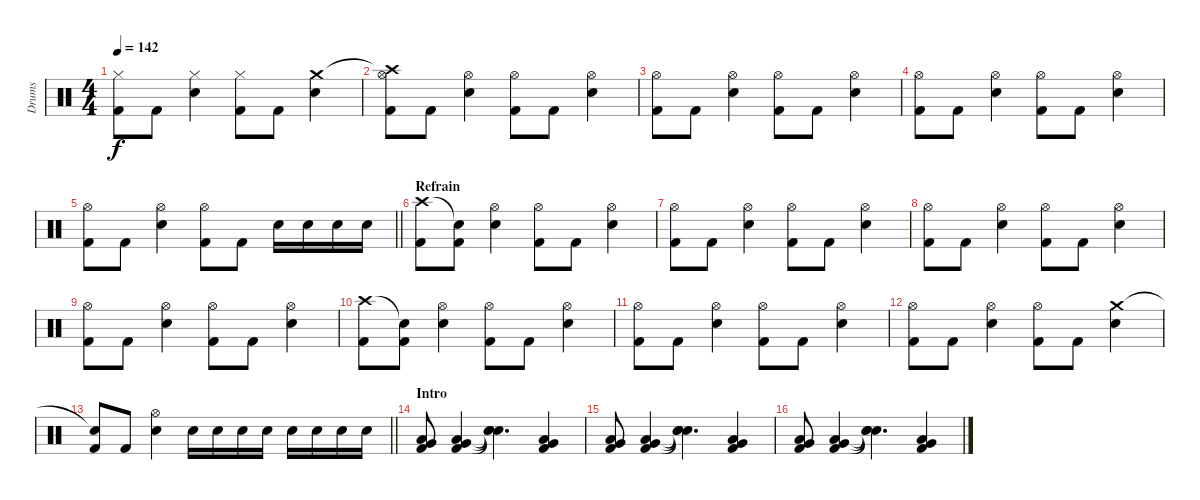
\track ("Drums" "Drums") {instrument percussion}
\staff {score}
\articulation defaults
\ts (4 4)
\tempo 142
\clef neutral
\ks c
("Hi-Hat (closed)" "Kick (hit) 2").8{dy f} "Kick (hit) 2".8 ("Hi-Hat (closed)" "Snare (hit) 2").4 ("Hi-Hat (closed)" "Kick (hit) 2").8 "Kick (hit) 2".8 ("Crash medium (hit)" "Snare (hit) 2").4 |
("Crash high (hit)"{t} "Hi-Hat (open)" "Kick (hit) 2").8 "Kick (hit) 2".8 ("Hi-Hat (open)" "Snare (hit) 2").4 ("Hi-Hat (open)" "Kick (hit) 2").8 "Kick (hit) 2".8 ("Hi-Hat (open)" "Snare (hit) 2").4 |
("Hi-Hat (open)" "Kick (hit) 2").8 "Kick (hit) 2".8 ("Hi-Hat (open)" "Snare (hit) 2").4 ("Hi-Hat (open)" "Kick (hit) 2").8 "Kick (hit) 2".8 ("Hi-Hat (open)" "Snare (hit) 2").4 |
("Hi-Hat (open)" "Kick (hit) 2").8 "Kick (hit) 2".8 ("Hi-Hat (open)" "Snare (hit) 2").4 ("Hi-Hat (open)" "Kick (hit) 2").8 "Kick (hit) 2".8 ("Hi-Hat (open)" "Snare (hit) 2").4 |
\barLineRight lightlight
("Hi-Hat (open)" "Kick (hit) 2").8 "Kick (hit) 2".8 ("Hi-Hat (open)" "Snare (hit) 2").4 ("Hi-Hat (open)" "Kick (hit) 2").8 "Kick (hit) 2".8 "Snare (hit) 2".16 "Snare (hit) 2".16 "Snare (hit) 2".16 "Snare (hit) 2".16 |
\section ("" "Refrain")
("Crash high (hit)" "Kick (hit) 2").8 ("Snare (hit)"{t} "Kick (hit) 2").8 ("Hi-Hat (open)" "Snare (hit) 2").4 ("Hi-Hat (open)" "Kick (hit) 2").8 "Kick (hit) 2".8 ("Hi-Hat (open)" "Snare (hit) 2").4 |
("Hi-Hat (open)" "Kick (hit) 2").8 "Kick (hit) 2".8 ("Hi-Hat (open)" "Snare (hit) 2").4 ("Hi-Hat (open)" "Kick (hit) 2").8 "Kick (hit) 2".8 ("Hi-Hat (open)" "Snare (hit) 2").4 |
("Hi-Hat (open)" "Kick (hit) 2").8 "Kick (hit) 2".8 ("Hi-Hat (open)" "Snare (hit) 2").4 ("Hi-Hat (open)" "Kick (hit) 2").8 "Kick (hit) 2".8 ("Hi-Hat (open)" "Snare (hit) 2").4 |
("Hi-Hat (open)" "Kick (hit) 2").8 "Kick (hit) 2".8 ("Hi-Hat (open)" "Snare (hit) 2").4 ("Hi-Hat (open)" "Kick (hit) 2").8 "Kick (hit) 2".8 ("Hi-Hat (open)" "Snare (hit) 2").4 |
("Crash high (hit)" "Kick (hit) 2").8 ("Snare (hit)"{t} "Kick (hit) 2").8 ("Hi-Hat (open)" "Snare (hit) 2").4 ("Hi-Hat (open)" "Kick (hit) 2").8 "Kick (hit) 2".8 ("Hi-Hat (open)" "Snare (hit) 2").4 |
("Hi-Hat (open)" "Kick (hit) 2").8 "Kick (hit) 2".8 ("Hi-Hat (open)" "Snare (hit) 2").4 ("Hi-Hat (open)" "Kick (hit) 2").8 "Kick (hit) 2".8 ("Hi-Hat (open)" "Snare (hit) 2").4 |
("Hi-Hat (open)" "Kick (hit) 2").8 "Kick (hit) 2".8 ("Hi-Hat (open)" "Snare (hit) 2").4 ("Hi-Hat (open)" "Kick (hit) 2").8 "Kick (hit) 2".8 ("Crash medium (hit)" "Snare (hit) 2").4 |
\barLineRight lightlight
("Snare (hit)"{t} "Kick (hit) 2").8 "Kick (hit) 2".8 ("Hi-Hat (open)" "Snare (hit) 2").4 "Snare (hit) 2".16 "Snare (hit) 2".16 "Snare (hit) 2".16 "Snare (hit) 2".16 "Snare (hit) 2".16 "Snare (hit) 2".16 "Snare (hit) 2".16 "Snare (hit) 2".16 |
\section ("" "Intro")
("Low Tom (hit)" "Very Low Tom (hit)" "Kick (hit) 2").8 ("Low Tom (hit)" "Very Low Tom (hit)" "Kick (hit) 2").4 ("Snare (hit)"{t} "Snare (hit)"{t} "Snare (hit)"{t}).4{d} ("Low Tom (hit)" "Very Low Tom (hit)" "Kick (hit) 2").4 |
("Low Tom (hit)" "Very Low Tom (hit)" "Kick (hit) 2").8 ("Low Tom (hit)" "Very Low Tom (hit)" "Kick (hit) 2").4 ("Snare (hit)"{t} "Snare (hit)"{t} "Snare (hit)"{t}).4{d} ("Low Tom (hit)" "Very Low Tom (hit)" "Kick (hit) 2").4 |
("Low Tom (hit)" "Very Low Tom (hit)" "Kick (hit) 2").8 ("Low Tom (hit)" "Very Low Tom (hit)" "Kick (hit) 2").4 ("Snare (hit)"{t} "Snare (hit)"{t} "Snare (hit)"{t}).4{d} ("Low Tom (hit)" "Very Low Tom (hit)" "Kick (hit) 2").4
